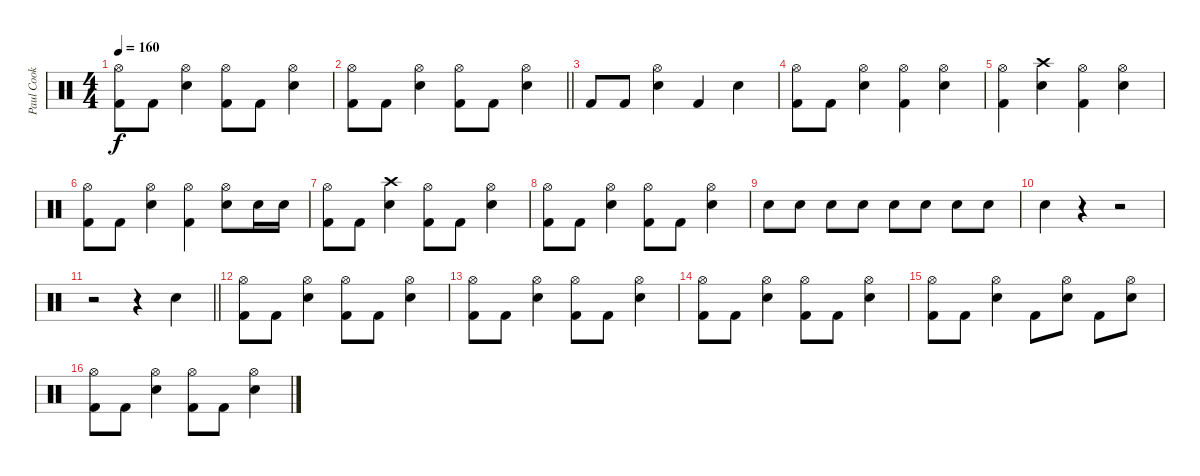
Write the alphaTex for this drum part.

\track ("Paul Cook" "Paul Cook") {instrument percussion}
\staff {score}
\articulation defaults
\ts (4 4)
\tempo 160
\clef neutral
\ks c
("Hi-Hat (open)" "Kick (hit) 2").8{dy f} "Kick (hit) 2".8 ("Hi-Hat (open)" "Electric Snare (hit)").4 ("Hi-Hat (open)" "Kick (hit) 2").8 "Kick (hit) 2".8 ("Hi-Hat (open)" "Electric Snare (hit)").4 |
\barLineRight lightlight
("Hi-Hat (open)" "Kick (hit) 2").8 "Kick (hit) 2".8 ("Hi-Hat (open)" "Electric Snare (hit)").4 ("Hi-Hat (open)" "Kick (hit) 2").8 "Kick (hit) 2".8 ("Hi-Hat (open)" "Electric Snare (hit)").4 |
"Kick (hit) 2".8 "Kick (hit) 2".8 ("Hi-Hat (open)" "Electric Snare (hit)").4 "Kick (hit) 2".4 "Electric Snare (hit)".4 |
("Hi-Hat (open)" "Kick (hit) 2").8 "Kick (hit) 2".8 ("Hi-Hat (open)" "Electric Snare (hit)").4 ("Hi-Hat (open)" "Kick (hit) 2").4 ("Hi-Hat (open)" "Electric Snare (hit)").4 |
("Hi-Hat (open)" "Kick (hit) 2").4 ("Crash high (hit)" "Electric Snare (hit)").4 ("Hi-Hat (open)" "Kick (hit) 2").4 ("Hi-Hat (open)" "Electric Snare (hit)").4 |
("Hi-Hat (open)" "Kick (hit) 2").8 "Kick (hit) 2".8 ("Hi-Hat (open)" "Electric Snare (hit)").4 ("Hi-Hat (open)" "Kick (hit) 2").4 ("Hi-Hat (open)" "Electric Snare (hit)").8 "Electric Snare (hit)".16 "Electric Snare (hit)".16 |
("Hi-Hat (open)" "Kick (hit) 2").8 "Kick (hit) 2".8 ("Crash high (hit)" "Electric Snare (hit)").4 ("Hi-Hat (open)" "Kick (hit) 2").8 "Kick (hit) 2".8 ("Hi-Hat (open)" "Electric Snare (hit)").4 |
("Hi-Hat (open)" "Kick (hit) 2").8 "Kick (hit) 2".8 ("Hi-Hat (open)" "Electric Snare (hit)").4 ("Hi-Hat (open)" "Kick (hit) 2").8 "Kick (hit) 2".8 ("Hi-Hat (open)" "Electric Snare (hit)").4 |
"Electric Snare (hit)".8 "Electric Snare (hit)".8 "Electric Snare (hit)".8 "Electric Snare (hit)".8 "Electric Snare (hit)".8 "Electric Snare (hit)".8 "Electric Snare (hit)".8 "Electric Snare (hit)".8 |
"Electric Snare (hit)".4 r.4 r.2 |
\barLineRight lightlight
r.2 r.4 "Electric Snare (hit)".4 |
("Hi-Hat (open)" "Kick (hit) 2").8 "Kick (hit) 2".8 ("Hi-Hat (open)" "Electric Snare (hit)").4 ("Hi-Hat (open)" "Kick (hit) 2").8 "Kick (hit) 2".8 ("Hi-Hat (open)" "Electric Snare (hit)").4 |
("Hi-Hat (open)" "Kick (hit) 2").8 "Kick (hit) 2".8 ("Hi-Hat (open)" "Electric Snare (hit)").4 ("Hi-Hat (open)" "Kick (hit) 2").8 "Kick (hit) 2".8 ("Hi-Hat (open)" "Electric Snare (hit)").4 |
("Hi-Hat (open)" "Kick (hit) 2").8 "Kick (hit) 2".8 ("Hi-Hat (open)" "Electric Snare (hit)").4 ("Hi-Hat (open)" "Kick (hit) 2").8 "Kick (hit) 2".8 ("Hi-Hat (open)" "Electric Snare (hit)").4 |
("Hi-Hat (open)" "Kick (hit) 2").8 "Kick (hit) 2".8 ("Hi-Hat (open)" "Electric Snare (hit)").4 "Kick (hit) 2".8 ("Hi-Hat (open)" "Electric Snare (hit)").8 "Kick (hit) 2".8 ("Hi-Hat (open)" "Electric Snare (hit)").8 |
("Hi-Hat (open)" "Kick (hit) 2").8 "Kick (hit) 2".8 ("Hi-Hat (open)" "Electric Snare (hit)").4 ("Hi-Hat (open)" "Kick (hit) 2").8 "Kick (hit) 2".8 ("Hi-Hat (open)" "Electric Snare (hit)").4
